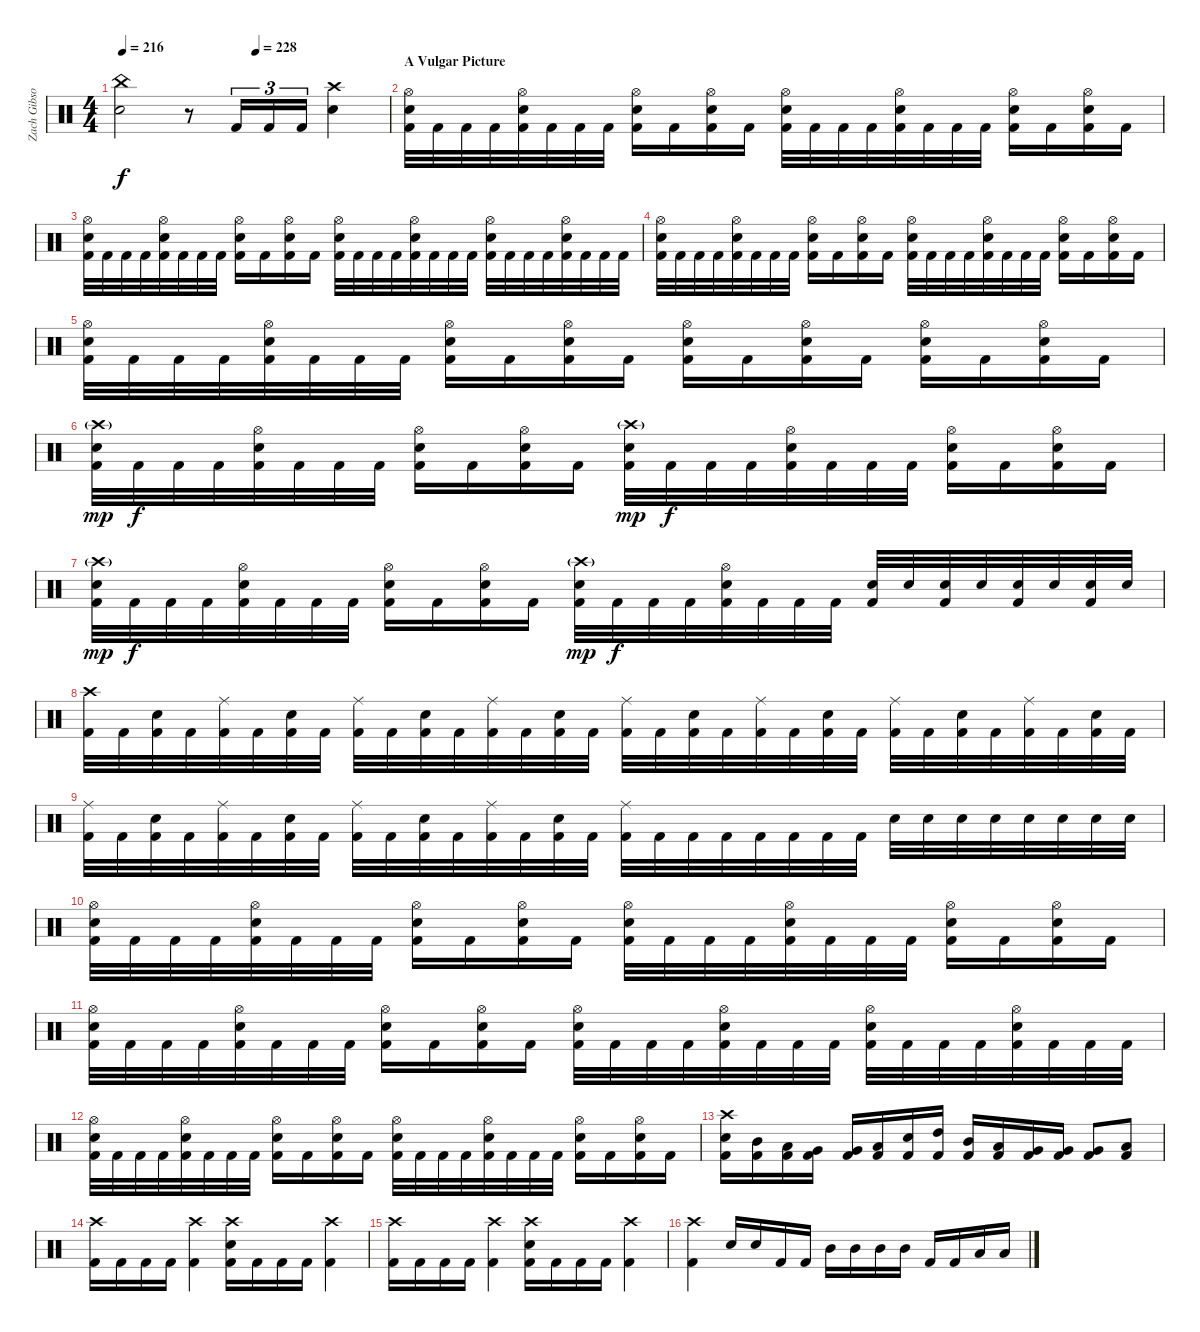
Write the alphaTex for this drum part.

\track ("Zach Gibson (Ex-Drums)" "Zach Gibso") {instrument percussion}
\staff {score}
\articulation defaults
\ts (4 4)
\tempo 216
\tempo (228 0.5)
\clef neutral
\ks c
("China (hit)" "Snare (hit) 2").2{dy f} r.8 "Kick (hit) 2".16{tu (3 2)} "Kick (hit) 2".16{tu (3 2)} "Kick (hit) 2".16{tu (3 2)} ("Crash high (hit)" "Snare (hit) 2").4 |
\section ("" "A Vulgar Picture")
("Hi-Hat (open)" "Snare (hit) 2" "Kick (hit) 2").32 "Kick (hit) 2".32 "Kick (hit) 2".32 "Kick (hit) 2".32 ("Hi-Hat (open)" "Snare (hit) 2" "Kick (hit) 2").32 "Kick (hit) 2".32 "Kick (hit) 2".32 "Kick (hit) 2".32 ("Hi-Hat (open)" "Kick (hit) 2" "Snare (hit) 2").16 "Kick (hit) 2".16 ("Hi-Hat (open)" "Snare (hit) 2" "Kick (hit) 2").16 "Kick (hit) 2".16 ("Hi-Hat (open)" "Snare (hit) 2" "Kick (hit) 2").32 "Kick (hit) 2".32 "Kick (hit) 2".32 "Kick (hit) 2".32 ("Hi-Hat (open)" "Snare (hit) 2" "Kick (hit) 2").32 "Kick (hit) 2".32 "Kick (hit) 2".32 "Kick (hit) 2".32 ("Hi-Hat (open)" "Snare (hit) 2" "Kick (hit) 2").16 "Kick (hit) 2".16 ("Hi-Hat (open)" "Snare (hit) 2" "Kick (hit) 2").16 "Kick (hit) 2".16 |
("Hi-Hat (open)" "Snare (hit) 2" "Kick (hit) 2").32 "Kick (hit) 2".32 "Kick (hit) 2".32 "Kick (hit) 2".32 ("Hi-Hat (open)" "Snare (hit) 2" "Kick (hit) 2").32 "Kick (hit) 2".32 "Kick (hit) 2".32 "Kick (hit) 2".32 ("Hi-Hat (open)" "Kick (hit) 2" "Snare (hit) 2").16 "Kick (hit) 2".16 ("Hi-Hat (open)" "Snare (hit) 2" "Kick (hit) 2").16 "Kick (hit) 2".16 ("Hi-Hat (open)" "Snare (hit) 2" "Kick (hit) 2").32 "Kick (hit) 2".32 "Kick (hit) 2".32 "Kick (hit) 2".32 ("Hi-Hat (open)" "Snare (hit) 2" "Kick (hit) 2").32 "Kick (hit) 2".32 "Kick (hit) 2".32 "Kick (hit) 2".32 ("Hi-Hat (open)" "Snare (hit) 2" "Kick (hit) 2").32 "Kick (hit) 2".32 "Kick (hit) 2".32 "Kick (hit) 2".32 ("Hi-Hat (open)" "Snare (hit) 2" "Kick (hit) 2").32 "Kick (hit) 2".32 "Kick (hit) 2".32 "Kick (hit) 2".32 |
("Hi-Hat (open)" "Snare (hit) 2" "Kick (hit) 2").32 "Kick (hit) 2".32 "Kick (hit) 2".32 "Kick (hit) 2".32 ("Hi-Hat (open)" "Snare (hit) 2" "Kick (hit) 2").32 "Kick (hit) 2".32 "Kick (hit) 2".32 "Kick (hit) 2".32 ("Hi-Hat (open)" "Kick (hit) 2" "Snare (hit) 2").16 "Kick (hit) 2".16 ("Hi-Hat (open)" "Snare (hit) 2" "Kick (hit) 2").16 "Kick (hit) 2".16 ("Hi-Hat (open)" "Snare (hit) 2" "Kick (hit) 2").32 "Kick (hit) 2".32 "Kick (hit) 2".32 "Kick (hit) 2".32 ("Hi-Hat (open)" "Snare (hit) 2" "Kick (hit) 2").32 "Kick (hit) 2".32 "Kick (hit) 2".32 "Kick (hit) 2".32 ("Hi-Hat (open)" "Snare (hit) 2" "Kick (hit) 2").16 "Kick (hit) 2".16 ("Hi-Hat (open)" "Snare (hit) 2" "Kick (hit) 2").16 "Kick (hit) 2".16 |
("Hi-Hat (open)" "Snare (hit) 2" "Kick (hit) 2").32 "Kick (hit) 2".32 "Kick (hit) 2".32 "Kick (hit) 2".32 ("Hi-Hat (open)" "Snare (hit) 2" "Kick (hit) 2").32 "Kick (hit) 2".32 "Kick (hit) 2".32 "Kick (hit) 2".32 ("Hi-Hat (open)" "Kick (hit) 2" "Snare (hit) 2").16 "Kick (hit) 2".16 ("Hi-Hat (open)" "Snare (hit) 2" "Kick (hit) 2").16 "Kick (hit) 2".16 ("Hi-Hat (open)" "Snare (hit) 2" "Kick (hit) 2").16 "Kick (hit) 2".16 ("Hi-Hat (open)" "Snare (hit) 2" "Kick (hit) 2").16 "Kick (hit) 2".16 ("Hi-Hat (open)" "Snare (hit) 2" "Kick (hit) 2").16 "Kick (hit) 2".16 ("Hi-Hat (open)" "Snare (hit) 2" "Kick (hit) 2").16 "Kick (hit) 2".16 |
("Crash high (hit)"{g} "Snare (hit) 2" "Kick (hit) 2").32{dy mp} "Kick (hit) 2".32{dy f} "Kick (hit) 2".32 "Kick (hit) 2".32 ("Hi-Hat (open)" "Snare (hit) 2" "Kick (hit) 2").32 "Kick (hit) 2".32 "Kick (hit) 2".32 "Kick (hit) 2".32 ("Hi-Hat (open)" "Kick (hit) 2" "Snare (hit) 2").16 "Kick (hit) 2".16 ("Hi-Hat (open)" "Snare (hit) 2" "Kick (hit) 2").16 "Kick (hit) 2".16 ("Crash high (hit)"{g} "Snare (hit) 2" "Kick (hit) 2").32{dy mp} "Kick (hit) 2".32{dy f} "Kick (hit) 2".32 "Kick (hit) 2".32 ("Hi-Hat (open)" "Snare (hit) 2" "Kick (hit) 2").32 "Kick (hit) 2".32 "Kick (hit) 2".32 "Kick (hit) 2".32 ("Hi-Hat (open)" "Snare (hit) 2" "Kick (hit) 2").16 "Kick (hit) 2".16 ("Hi-Hat (open)" "Snare (hit) 2" "Kick (hit) 2").16 "Kick (hit) 2".16 |
("Crash high (hit)"{g} "Snare (hit) 2" "Kick (hit) 2").32{dy mp} "Kick (hit) 2".32{dy f} "Kick (hit) 2".32 "Kick (hit) 2".32 ("Hi-Hat (open)" "Snare (hit) 2" "Kick (hit) 2").32 "Kick (hit) 2".32 "Kick (hit) 2".32 "Kick (hit) 2".32 ("Hi-Hat (open)" "Kick (hit) 2" "Snare (hit) 2").16 "Kick (hit) 2".16 ("Hi-Hat (open)" "Snare (hit) 2" "Kick (hit) 2").16 "Kick (hit) 2".16 ("Crash high (hit)"{g} "Snare (hit) 2" "Kick (hit) 2").32{dy mp} "Kick (hit) 2".32{dy f} "Kick (hit) 2".32 "Kick (hit) 2".32 ("Hi-Hat (open)" "Snare (hit) 2" "Kick (hit) 2").32 "Kick (hit) 2".32 "Kick (hit) 2".32 "Kick (hit) 2".32 ("Snare (hit) 2" "Kick (hit) 2").32 "Snare (hit) 2".32 ("Snare (hit) 2" "Kick (hit) 2").32 "Snare (hit) 2".32 ("Snare (hit) 2" "Kick (hit) 2").32 "Snare (hit) 2".32 ("Snare (hit) 2" "Kick (hit) 2").32 "Snare (hit) 2".32 |
("Crash high (hit)" "Kick (hit) 2").32 "Kick (hit) 2".32 ("Snare (hit) 2" "Kick (hit) 2").32 "Kick (hit) 2".32 ("Ride (middle)" "Kick (hit) 2").32 "Kick (hit) 2".32 ("Snare (hit) 2" "Kick (hit) 2").32 "Kick (hit) 2".32 ("Ride (middle)" "Kick (hit) 2").32 "Kick (hit) 2".32 ("Snare (hit) 2" "Kick (hit) 2").32 "Kick (hit) 2".32 ("Ride (middle)" "Kick (hit) 2").32 "Kick (hit) 2".32 ("Snare (hit) 2" "Kick (hit) 2").32 "Kick (hit) 2".32 ("Ride (middle)" "Kick (hit) 2").32 "Kick (hit) 2".32 ("Snare (hit) 2" "Kick (hit) 2").32 "Kick (hit) 2".32 ("Ride (middle)" "Kick (hit) 2").32 "Kick (hit) 2".32 ("Snare (hit) 2" "Kick (hit) 2").32 "Kick (hit) 2".32 ("Ride (middle)" "Kick (hit) 2").32 "Kick (hit) 2".32 ("Snare (hit) 2" "Kick (hit) 2").32 "Kick (hit) 2".32 ("Ride (middle)" "Kick (hit) 2").32 "Kick (hit) 2".32 ("Snare (hit) 2" "Kick (hit) 2").32 "Kick (hit) 2".32 |
("Ride (middle)" "Kick (hit) 2").32 "Kick (hit) 2".32 ("Snare (hit) 2" "Kick (hit) 2").32 "Kick (hit) 2".32 ("Ride (middle)" "Kick (hit) 2").32 "Kick (hit) 2".32 ("Snare (hit) 2" "Kick (hit) 2").32 "Kick (hit) 2".32 ("Ride (middle)" "Kick (hit) 2").32 "Kick (hit) 2".32 ("Snare (hit) 2" "Kick (hit) 2").32 "Kick (hit) 2".32 ("Ride (middle)" "Kick (hit) 2").32 "Kick (hit) 2".32 ("Snare (hit) 2" "Kick (hit) 2").32 "Kick (hit) 2".32 ("Ride (middle)" "Kick (hit) 2").32 "Kick (hit) 2".32 "Kick (hit) 2".32 "Kick (hit) 2".32 "Kick (hit) 2".32 "Kick (hit) 2".32 "Kick (hit) 2".32 "Kick (hit) 2".32 "Snare (hit) 2".32 "Snare (hit) 2".32 "Snare (hit) 2".32 "Snare (hit) 2".32 "Snare (hit) 2".32 "Snare (hit) 2".32 "Snare (hit) 2".32 "Snare (hit) 2".32 |
("Hi-Hat (open)" "Snare (hit) 2" "Kick (hit) 2").32 "Kick (hit) 2".32 "Kick (hit) 2".32 "Kick (hit) 2".32 ("Hi-Hat (open)" "Snare (hit) 2" "Kick (hit) 2").32 "Kick (hit) 2".32 "Kick (hit) 2".32 "Kick (hit) 2".32 ("Hi-Hat (open)" "Kick (hit) 2" "Snare (hit) 2").16 "Kick (hit) 2".16 ("Hi-Hat (open)" "Snare (hit) 2" "Kick (hit) 2").16 "Kick (hit) 2".16 ("Hi-Hat (open)" "Snare (hit) 2" "Kick (hit) 2").32 "Kick (hit) 2".32 "Kick (hit) 2".32 "Kick (hit) 2".32 ("Hi-Hat (open)" "Snare (hit) 2" "Kick (hit) 2").32 "Kick (hit) 2".32 "Kick (hit) 2".32 "Kick (hit) 2".32 ("Hi-Hat (open)" "Snare (hit) 2" "Kick (hit) 2").16 "Kick (hit) 2".16 ("Hi-Hat (open)" "Snare (hit) 2" "Kick (hit) 2").16 "Kick (hit) 2".16 |
("Hi-Hat (open)" "Snare (hit) 2" "Kick (hit) 2").32 "Kick (hit) 2".32 "Kick (hit) 2".32 "Kick (hit) 2".32 ("Hi-Hat (open)" "Snare (hit) 2" "Kick (hit) 2").32 "Kick (hit) 2".32 "Kick (hit) 2".32 "Kick (hit) 2".32 ("Hi-Hat (open)" "Kick (hit) 2" "Snare (hit) 2").16 "Kick (hit) 2".16 ("Hi-Hat (open)" "Snare (hit) 2" "Kick (hit) 2").16 "Kick (hit) 2".16 ("Hi-Hat (open)" "Snare (hit) 2" "Kick (hit) 2").32 "Kick (hit) 2".32 "Kick (hit) 2".32 "Kick (hit) 2".32 ("Hi-Hat (open)" "Snare (hit) 2" "Kick (hit) 2").32 "Kick (hit) 2".32 "Kick (hit) 2".32 "Kick (hit) 2".32 ("Hi-Hat (open)" "Snare (hit) 2" "Kick (hit) 2").32 "Kick (hit) 2".32 "Kick (hit) 2".32 "Kick (hit) 2".32 ("Hi-Hat (open)" "Snare (hit) 2" "Kick (hit) 2").32 "Kick (hit) 2".32 "Kick (hit) 2".32 "Kick (hit) 2".32 |
("Hi-Hat (open)" "Snare (hit) 2" "Kick (hit) 2").32 "Kick (hit) 2".32 "Kick (hit) 2".32 "Kick (hit) 2".32 ("Hi-Hat (open)" "Snare (hit) 2" "Kick (hit) 2").32 "Kick (hit) 2".32 "Kick (hit) 2".32 "Kick (hit) 2".32 ("Hi-Hat (open)" "Kick (hit) 2" "Snare (hit) 2").16 "Kick (hit) 2".16 ("Hi-Hat (open)" "Snare (hit) 2" "Kick (hit) 2").16 "Kick (hit) 2".16 ("Hi-Hat (open)" "Snare (hit) 2" "Kick (hit) 2").32 "Kick (hit) 2".32 "Kick (hit) 2".32 "Kick (hit) 2".32 ("Hi-Hat (open)" "Snare (hit) 2" "Kick (hit) 2").32 "Kick (hit) 2".32 "Kick (hit) 2".32 "Kick (hit) 2".32 ("Hi-Hat (open)" "Snare (hit) 2" "Kick (hit) 2").16 "Kick (hit) 2".16 ("Hi-Hat (open)" "Snare (hit) 2" "Kick (hit) 2").16 "Kick (hit) 2".16 |
("Crash high (hit)" "Snare (hit) 2" "Kick (hit) 2").16 ("Mid Tom (hit)" "Kick (hit) 2").16 ("Low Tom (hit)" "Kick (hit) 2").16 ("Very Low Tom (hit)" "Kick (hit) 2").16 ("Very Low Tom (hit)" "Kick (hit) 2").16 ("Low Floor Tom (hit)" "Kick (hit) 2").16 ("Snare (hit) 2" "Kick (hit) 2").16 ("High Tom (hit)" "Kick (hit) 2").16 ("Mid Tom (hit)" "Kick (hit) 2").16 ("Low Tom (hit)" "Kick (hit) 2").16 ("Very Low Tom (hit)" "Kick (hit) 2").16 ("Very Low Tom (hit)" "Kick (hit) 2").16 ("Very Low Tom (hit)" "Kick (hit) 2").8 ("Low Floor Tom (hit)" "Kick (hit) 2").8 |
("Crash high (hit)" "Kick (hit) 2").16 "Kick (hit) 2".16 "Kick (hit) 2".16 "Kick (hit) 2".16 ("Crash high (hit)" "Kick (hit) 2").4 ("Crash high (hit)" "Snare (hit) 2" "Kick (hit) 2").16 "Kick (hit) 2".16 "Kick (hit) 2".16 "Kick (hit) 2".16 ("Crash high (hit)" "Kick (hit) 2").4 |
("Crash high (hit)" "Kick (hit) 2").16 "Kick (hit) 2".16 "Kick (hit) 2".16 "Kick (hit) 2".16 ("Crash high (hit)" "Kick (hit) 2").4 ("Crash high (hit)" "Snare (hit) 2" "Kick (hit) 2").16 "Kick (hit) 2".16 "Kick (hit) 2".16 "Kick (hit) 2".16 ("Crash high (hit)" "Kick (hit) 2").4 |
("Crash high (hit)" "Kick (hit) 2").4 "Snare (hit) 2".16 "Snare (hit) 2".16 "Kick (hit) 2".16 "Kick (hit) 2".16 "Mid Tom (hit)".16 "Mid Tom (hit)".16 "Mid Tom (hit)".16 "Mid Tom (hit)".16 "Kick (hit) 2".16 "Kick (hit) 2".16 "Low Tom (hit)".16 "Low Tom (hit)".16
